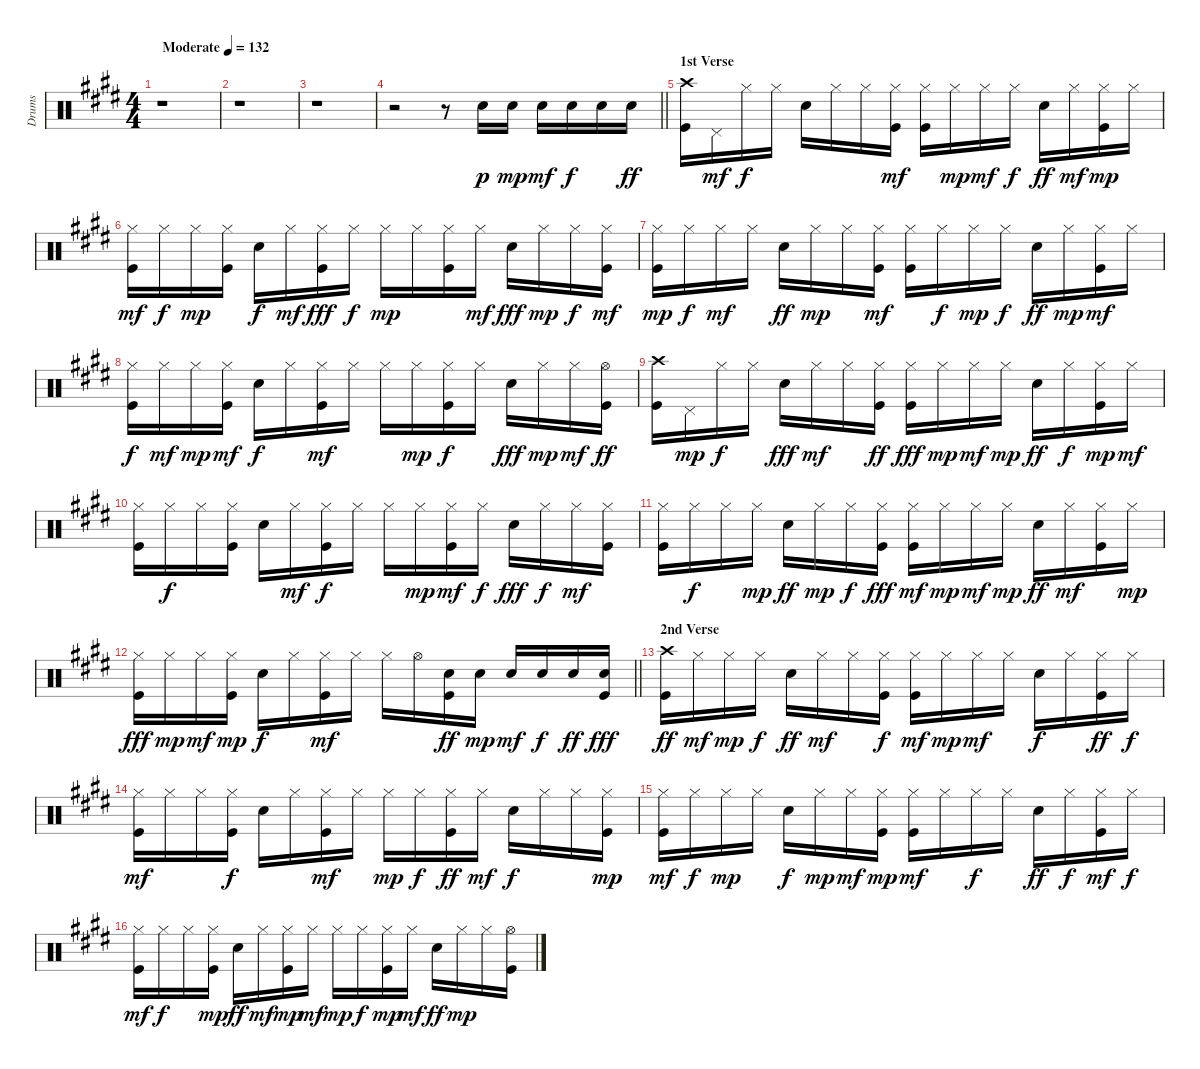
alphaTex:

\track ("Drums" "Drums") {instrument percussion}
\staff {score}
\articulation defaults
\ts (4 4)
\tempo (132 "Moderate")
\clef neutral
\ks e
r.1{dy p} |
r.1 |
r.1 |
\barLineRight lightlight
r.2 r.8 "Snare (hit) 2".16 "Snare (hit) 2".16{dy mp} "Snare (hit) 2".16{dy mf} "Snare (hit) 2".16{dy f} "Snare (hit) 2".16 "Snare (hit) 2".16{dy ff} |
\section ("" "1st Verse")
("Kick (hit)" "Crash high (hit)").16 "Pedal Hi-Hat (hit)".16{dy mf} "Hi-Hat (closed)".16{dy f} "Hi-Hat (closed)".16 "Snare (hit) 2".16 "Hi-Hat (closed)".16 "Hi-Hat (closed)".16 ("Kick (hit)" "Hi-Hat (closed)").16{dy mf} ("Kick (hit)" "Hi-Hat (closed)").16 "Hi-Hat (closed)".16{dy mp} "Hi-Hat (closed)".16{dy mf} "Hi-Hat (closed)".16{dy f} "Snare (hit) 2".16{dy ff} "Hi-Hat (closed)".16{dy mf} ("Kick (hit)" "Hi-Hat (closed)").16{dy mp} "Hi-Hat (closed)".16 |
("Kick (hit)" "Hi-Hat (closed)").16{dy mf} "Hi-Hat (closed)".16{dy f} "Hi-Hat (closed)".16{dy mp} ("Kick (hit)" "Hi-Hat (closed)").16 "Snare (hit) 2".16{dy f} "Hi-Hat (closed)".16{dy mf} ("Kick (hit)" "Hi-Hat (closed)").16{dy fff} "Hi-Hat (closed)".16{dy f} "Hi-Hat (closed)".16{dy mp} "Hi-Hat (closed)".16 ("Kick (hit)" "Hi-Hat (closed)").16 "Hi-Hat (closed)".16{dy mf} "Snare (hit) 2".16{dy fff} "Hi-Hat (closed)".16{dy mp} "Hi-Hat (closed)".16{dy f} ("Kick (hit)" "Hi-Hat (closed)").16{dy mf} |
("Kick (hit)" "Hi-Hat (closed)").16{dy mp} "Hi-Hat (closed)".16{dy f} "Hi-Hat (closed)".16{dy mf} "Hi-Hat (closed)".16 "Snare (hit) 2".16{dy ff} "Hi-Hat (closed)".16{dy mp} "Hi-Hat (closed)".16 ("Kick (hit)" "Hi-Hat (closed)").16{dy mf} ("Kick (hit)" "Hi-Hat (closed)").16 "Hi-Hat (closed)".16{dy f} "Hi-Hat (closed)".16{dy mp} "Hi-Hat (closed)".16{dy f} "Snare (hit) 2".16{dy ff} "Hi-Hat (closed)".16{dy mp} ("Kick (hit)" "Hi-Hat (closed)").16{dy mf} "Hi-Hat (closed)".16 |
("Kick (hit)" "Hi-Hat (closed)").16{dy f} "Hi-Hat (closed)".16{dy mf} "Hi-Hat (closed)".16{dy mp} ("Kick (hit)" "Hi-Hat (closed)").16{dy mf} "Snare (hit) 2".16{dy f} "Hi-Hat (closed)".16 ("Kick (hit)" "Hi-Hat (closed)").16{dy mf} "Hi-Hat (closed)".16 "Hi-Hat (closed)".16 "Hi-Hat (closed)".16{dy mp} ("Kick (hit)" "Hi-Hat (closed)").16{dy f} "Hi-Hat (closed)".16 "Snare (hit) 2".16{dy fff} "Hi-Hat (closed)".16{dy mp} "Hi-Hat (closed)".16{dy mf} ("Kick (hit)" "Hi-Hat (open)").16{dy ff} |
("Kick (hit)" "Crash high (hit)").16 "Pedal Hi-Hat (hit)".16{dy mp} "Hi-Hat (closed)".16{dy f} "Hi-Hat (closed)".16 "Snare (hit) 2".16{dy fff} "Hi-Hat (closed)".16{dy mf} "Hi-Hat (closed)".16 ("Kick (hit)" "Hi-Hat (closed)").16{dy ff} ("Kick (hit)" "Hi-Hat (closed)").16{dy fff} "Hi-Hat (closed)".16{dy mp} "Hi-Hat (closed)".16{dy mf} "Hi-Hat (closed)".16{dy mp} "Snare (hit) 2".16{dy ff} "Hi-Hat (closed)".16{dy f} ("Kick (hit)" "Hi-Hat (closed)").16{dy mp} "Hi-Hat (closed)".16{dy mf} |
("Kick (hit)" "Hi-Hat (closed)").16 "Hi-Hat (closed)".16{dy f} "Hi-Hat (closed)".16 ("Kick (hit)" "Hi-Hat (closed)").16 "Snare (hit) 2".16 "Hi-Hat (closed)".16{dy mf} ("Kick (hit)" "Hi-Hat (closed)").16{dy f} "Hi-Hat (closed)".16 "Hi-Hat (closed)".16 "Hi-Hat (closed)".16{dy mp} ("Kick (hit)" "Hi-Hat (closed)").16{dy mf} "Hi-Hat (closed)".16{dy f} "Snare (hit) 2".16{dy fff} "Hi-Hat (closed)".16{dy f} "Hi-Hat (closed)".16{dy mf} ("Kick (hit)" "Hi-Hat (closed)").16 |
("Kick (hit)" "Hi-Hat (closed)").16 "Hi-Hat (closed)".16{dy f} "Hi-Hat (closed)".16 "Hi-Hat (closed)".16{dy mp} "Snare (hit) 2".16{dy ff} "Hi-Hat (closed)".16{dy mp} "Hi-Hat (closed)".16{dy f} ("Kick (hit)" "Hi-Hat (closed)").16{dy fff} ("Kick (hit)" "Hi-Hat (closed)").16{dy mf} "Hi-Hat (closed)".16{dy mp} "Hi-Hat (closed)".16{dy mf} "Hi-Hat (closed)".16{dy mp} "Snare (hit) 2".16{dy ff} "Hi-Hat (closed)".16{dy mf} ("Kick (hit)" "Hi-Hat (closed)").16 "Hi-Hat (closed)".16{dy mp} |
\barLineRight lightlight
("Kick (hit)" "Hi-Hat (closed)").16{dy fff} "Hi-Hat (closed)".16{dy mp} "Hi-Hat (closed)".16{dy mf} ("Kick (hit)" "Hi-Hat (closed)").16{dy mp} "Snare (hit) 2".16{dy f} "Hi-Hat (closed)".16 ("Kick (hit)" "Hi-Hat (closed)").16{dy mf} "Hi-Hat (closed)".16 "Hi-Hat (closed)".16 "Hi-Hat (open)".16 ("Kick (hit)" "Snare (hit) 2").16{dy ff} "Snare (hit) 2".16{dy mp} "Snare (hit) 2".16{dy mf} "Snare (hit) 2".16{dy f} "Snare (hit) 2".16{dy ff} ("Kick (hit)" "Snare (hit) 2").16{dy fff} |
\section ("" "2nd Verse")
("Kick (hit)" "Crash high (hit)").16{dy ff} "Hi-Hat (closed)".16{dy mf} "Hi-Hat (closed)".16{dy mp} "Hi-Hat (closed)".16{dy f} "Snare (hit) 2".16{dy ff} "Hi-Hat (closed)".16{dy mf} "Hi-Hat (closed)".16 ("Kick (hit)" "Hi-Hat (closed)").16{dy f} ("Kick (hit)" "Hi-Hat (closed)").16{dy mf} "Hi-Hat (closed)".16{dy mp} "Hi-Hat (closed)".16{dy mf} "Hi-Hat (closed)".16 "Snare (hit) 2".16{dy f} "Hi-Hat (closed)".16 ("Kick (hit)" "Hi-Hat (closed)").16{dy ff} "Hi-Hat (closed)".16{dy f} |
("Kick (hit)" "Hi-Hat (closed)").16{dy mf} "Hi-Hat (closed)".16 "Hi-Hat (closed)".16 ("Kick (hit)" "Hi-Hat (closed)").16{dy f} "Snare (hit) 2".16 "Hi-Hat (closed)".16 ("Kick (hit)" "Hi-Hat (closed)").16{dy mf} "Hi-Hat (closed)".16 "Hi-Hat (closed)".16{dy mp} "Hi-Hat (closed)".16{dy f} ("Kick (hit)" "Hi-Hat (closed)").16{dy ff} "Hi-Hat (closed)".16{dy mf} "Snare (hit) 2".16{dy f} "Hi-Hat (closed)".16 "Hi-Hat (closed)".16 ("Kick (hit)" "Hi-Hat (closed)").16{dy mp} |
("Kick (hit)" "Hi-Hat (closed)").16{dy mf} "Hi-Hat (closed)".16{dy f} "Hi-Hat (closed)".16{dy mp} "Hi-Hat (closed)".16 "Snare (hit) 2".16{dy f} "Hi-Hat (closed)".16{dy mp} "Hi-Hat (closed)".16{dy mf} ("Kick (hit)" "Hi-Hat (closed)").16{dy mp} ("Kick (hit)" "Hi-Hat (closed)").16{dy mf} "Hi-Hat (closed)".16 "Hi-Hat (closed)".16{dy f} "Hi-Hat (closed)".16 "Snare (hit) 2".16{dy ff} "Hi-Hat (closed)".16{dy f} ("Kick (hit)" "Hi-Hat (closed)").16{dy mf} "Hi-Hat (closed)".16{dy f} |
("Kick (hit)" "Hi-Hat (closed)").16{dy mf} "Hi-Hat (closed)".16{dy f} "Hi-Hat (closed)".16 ("Kick (hit)" "Hi-Hat (closed)").16{dy mp} "Snare (hit) 2".16{dy ff} "Hi-Hat (closed)".16{dy mf} ("Kick (hit)" "Hi-Hat (closed)").16{dy mp} "Hi-Hat (closed)".16{dy mf} "Hi-Hat (closed)".16{dy mp} "Hi-Hat (closed)".16{dy f} ("Kick (hit)" "Hi-Hat (closed)").16{dy mp} "Hi-Hat (closed)".16{dy mf} "Snare (hit) 2".16{dy ff} "Hi-Hat (closed)".16{dy mp} "Hi-Hat (closed)".16 ("Kick (hit)" "Hi-Hat (open)").16
